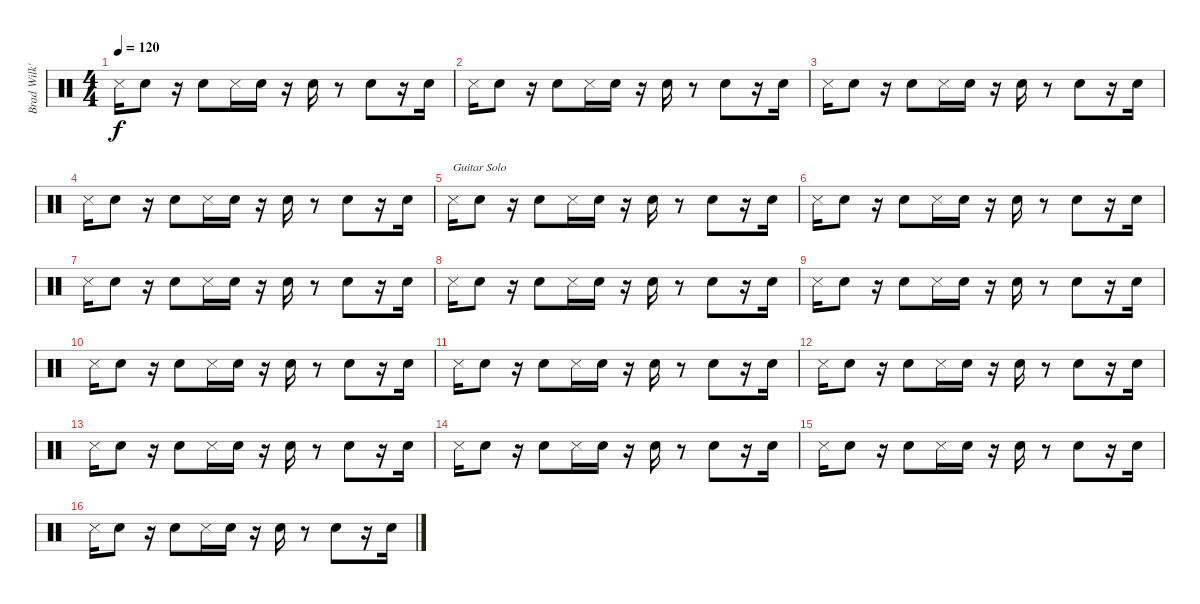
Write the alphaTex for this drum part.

\track ("Brad Wilk's Snare Drum" "Brad Wilk'") {instrument percussion}
\staff {score}
\articulation defaults
\ts (4 4)
\tempo 120
\clef neutral
\ks c "Snare (side stick) 3".16{dy f} "Electric Snare (hit)".8
r.16 "Electric Snare (hit)".8 "Snare (side stick) 3".16 "Electric Snare (hit)".16 r.16 "Electric Snare (hit)".16 r.8 "Electric Snare (hit)".8 r.16 "Electric Snare (hit)".16 |
"Snare (side stick) 3".16 "Electric Snare (hit)".8 r.16 "Electric Snare (hit)".8 "Snare (side stick) 3".16 "Electric Snare (hit)".16 r.16 "Electric Snare (hit)".16 r.8 "Electric Snare (hit)".8 r.16 "Electric Snare (hit)".16 |
"Snare (side stick) 3".16 "Electric Snare (hit)".8 r.16 "Electric Snare (hit)".8 "Snare (side stick) 3".16 "Electric Snare (hit)".16 r.16 "Electric Snare (hit)".16 r.8 "Electric Snare (hit)".8 r.16 "Electric Snare (hit)".16 |
"Snare (side stick) 3".16 "Electric Snare (hit)".8 r.16 "Electric Snare (hit)".8 "Snare (side stick) 3".16 "Electric Snare (hit)".16 r.16 "Electric Snare (hit)".16 r.8 "Electric Snare (hit)".8 r.16 "Electric Snare (hit)".16 |
"Snare (side stick) 3".16{txt "Guitar Solo"} "Electric Snare (hit)".8 r.16 "Electric Snare (hit)".8 "Snare (side stick) 3".16 "Electric Snare (hit)".16 r.16 "Electric Snare (hit)".16 r.8 "Electric Snare (hit)".8 r.16 "Electric Snare (hit)".16 |
"Snare (side stick) 3".16 "Electric Snare (hit)".8 r.16 "Electric Snare (hit)".8 "Snare (side stick) 3".16 "Electric Snare (hit)".16 r.16 "Electric Snare (hit)".16 r.8 "Electric Snare (hit)".8 r.16 "Electric Snare (hit)".16 |
"Snare (side stick) 3".16 "Electric Snare (hit)".8 r.16 "Electric Snare (hit)".8 "Snare (side stick) 3".16 "Electric Snare (hit)".16 r.16 "Electric Snare (hit)".16 r.8 "Electric Snare (hit)".8 r.16 "Electric Snare (hit)".16 |
"Snare (side stick) 3".16 "Electric Snare (hit)".8 r.16 "Electric Snare (hit)".8 "Snare (side stick) 3".16 "Electric Snare (hit)".16 r.16 "Electric Snare (hit)".16 r.8 "Electric Snare (hit)".8 r.16 "Electric Snare (hit)".16 |
"Snare (side stick) 3".16 "Electric Snare (hit)".8 r.16 "Electric Snare (hit)".8 "Snare (side stick) 3".16 "Electric Snare (hit)".16 r.16 "Electric Snare (hit)".16 r.8 "Electric Snare (hit)".8 r.16 "Electric Snare (hit)".16 |
"Snare (side stick) 3".16 "Electric Snare (hit)".8 r.16 "Electric Snare (hit)".8 "Snare (side stick) 3".16 "Electric Snare (hit)".16 r.16 "Electric Snare (hit)".16 r.8 "Electric Snare (hit)".8 r.16 "Electric Snare (hit)".16 |
"Snare (side stick) 3".16 "Electric Snare (hit)".8 r.16 "Electric Snare (hit)".8 "Snare (side stick) 3".16 "Electric Snare (hit)".16 r.16 "Electric Snare (hit)".16 r.8 "Electric Snare (hit)".8 r.16 "Electric Snare (hit)".16 |
"Snare (side stick) 3".16 "Electric Snare (hit)".8 r.16 "Electric Snare (hit)".8 "Snare (side stick) 3".16 "Electric Snare (hit)".16 r.16 "Electric Snare (hit)".16 r.8 "Electric Snare (hit)".8 r.16 "Electric Snare (hit)".16 |
"Snare (side stick) 3".16 "Electric Snare (hit)".8 r.16 "Electric Snare (hit)".8 "Snare (side stick) 3".16 "Electric Snare (hit)".16 r.16 "Electric Snare (hit)".16 r.8 "Electric Snare (hit)".8 r.16 "Electric Snare (hit)".16 |
"Snare (side stick) 3".16 "Electric Snare (hit)".8 r.16 "Electric Snare (hit)".8 "Snare (side stick) 3".16 "Electric Snare (hit)".16 r.16 "Electric Snare (hit)".16 r.8 "Electric Snare (hit)".8 r.16 "Electric Snare (hit)".16 |
"Snare (side stick) 3".16 "Electric Snare (hit)".8 r.16 "Electric Snare (hit)".8 "Snare (side stick) 3".16 "Electric Snare (hit)".16 r.16 "Electric Snare (hit)".16 r.8 "Electric Snare (hit)".8 r.16 "Electric Snare (hit)".16 |
"Snare (side stick) 3".16 "Electric Snare (hit)".8 r.16 "Electric Snare (hit)".8 "Snare (side stick) 3".16 "Electric Snare (hit)".16 r.16 "Electric Snare (hit)".16 r.8 "Electric Snare (hit)".8 r.16 "Electric Snare (hit)".16
